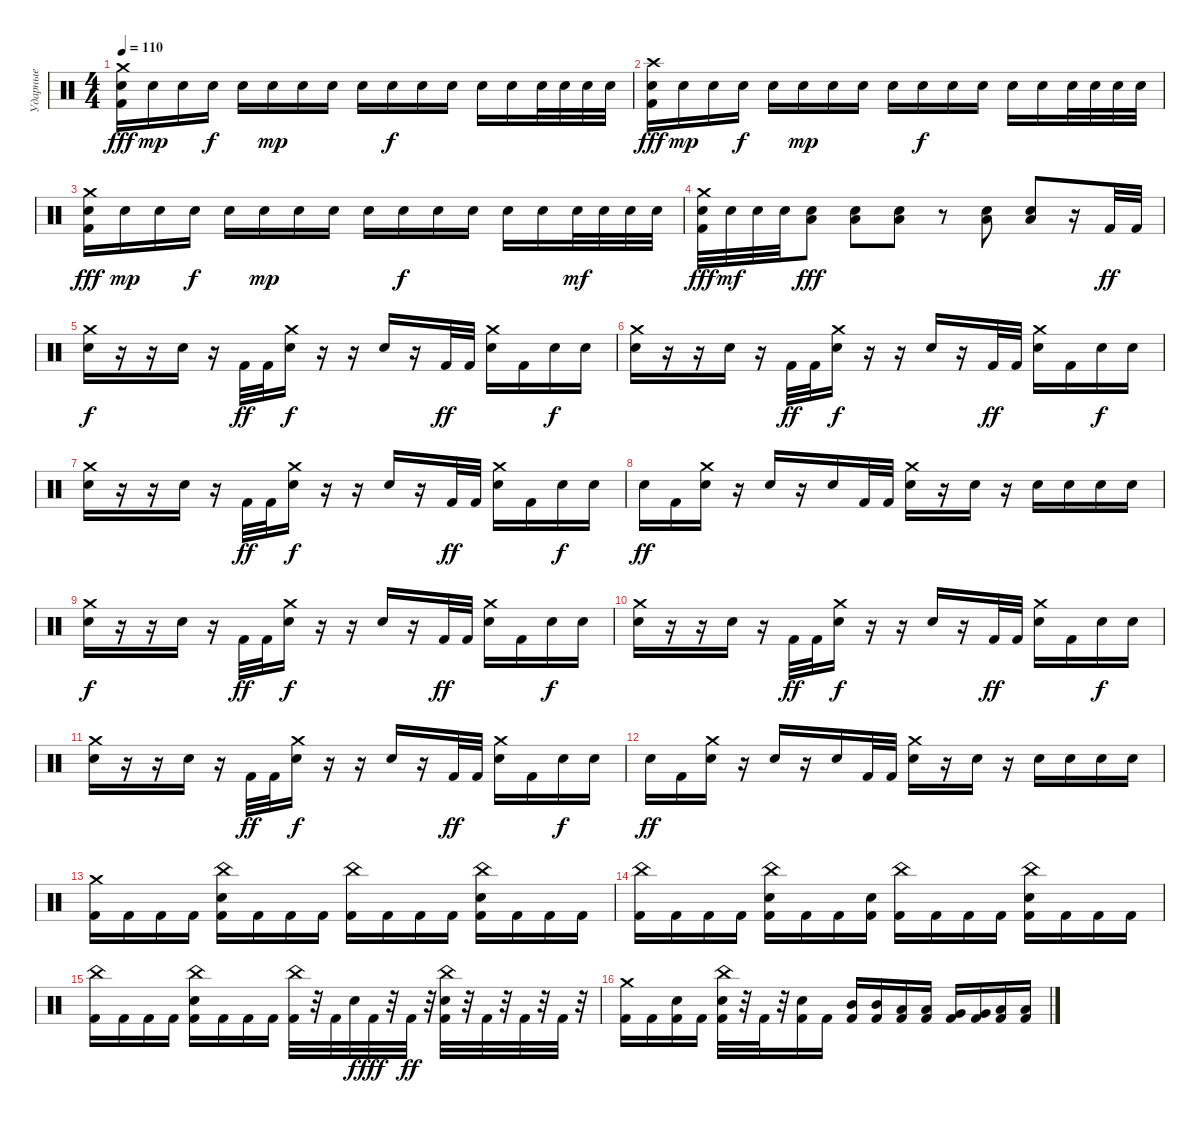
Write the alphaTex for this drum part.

\track ("Ударные" "Ударные") {instrument percussion}
\staff {score}
\articulation defaults
\ts (4 4)
\tempo 110
\clef neutral
\ks c
("Crash medium (hit)" "Electric Snare (hit)" "Kick (hit) 2").16{dy fff} "Electric Snare (hit)".16{dy mp} "Electric Snare (hit)".16 "Electric Snare (hit)".16{dy f} "Electric Snare (hit)".16 "Electric Snare (hit)".16{dy mp} "Electric Snare (hit)".16 "Electric Snare (hit)".16 "Electric Snare (hit)".16 "Electric Snare (hit)".16{dy f} "Electric Snare (hit)".16 "Electric Snare (hit)".16 "Electric Snare (hit)".16 "Electric Snare (hit)".16 "Electric Snare (hit)".32 "Electric Snare (hit)".32 "Electric Snare (hit)".32 "Electric Snare (hit)".32 |
("Crash high (hit)" "Electric Snare (hit)" "Kick (hit) 2").16{dy fff} "Electric Snare (hit)".16{dy mp} "Electric Snare (hit)".16 "Electric Snare (hit)".16{dy f} "Electric Snare (hit)".16 "Electric Snare (hit)".16{dy mp} "Electric Snare (hit)".16 "Electric Snare (hit)".16 "Electric Snare (hit)".16 "Electric Snare (hit)".16{dy f} "Electric Snare (hit)".16 "Electric Snare (hit)".16 "Electric Snare (hit)".16 "Electric Snare (hit)".16 "Electric Snare (hit)".32 "Electric Snare (hit)".32 "Electric Snare (hit)".32 "Electric Snare (hit)".32 |
("Crash medium (hit)" "Electric Snare (hit)" "Kick (hit) 2").16{dy fff} "Electric Snare (hit)".16{dy mp} "Electric Snare (hit)".16 "Electric Snare (hit)".16{dy f} "Electric Snare (hit)".16 "Electric Snare (hit)".16{dy mp} "Electric Snare (hit)".16 "Electric Snare (hit)".16 "Electric Snare (hit)".16 "Electric Snare (hit)".16{dy f} "Electric Snare (hit)".16 "Electric Snare (hit)".16 "Electric Snare (hit)".16 "Electric Snare (hit)".16 "Electric Snare (hit)".32{dy mf} "Electric Snare (hit)".32 "Electric Snare (hit)".32 "Electric Snare (hit)".32 |
("Crash medium (hit)" "Electric Snare (hit)" "Kick (hit) 2").32{dy fff} "Electric Snare (hit)".32{dy mf} "Electric Snare (hit)".32 "Electric Snare (hit)".32 ("Electric Snare (hit)" "Low Floor Tom (hit)").8{dy fff} ("Electric Snare (hit)" "Low Floor Tom (hit)").8 ("Electric Snare (hit)" "Low Floor Tom (hit)").8 r.8 ("Electric Snare (hit)" "Low Floor Tom (hit)").8 ("Electric Snare (hit)" "Low Floor Tom (hit)").8 r.16 "Kick (hit) 2".32{dy ff} "Kick (hit) 2".32 |
("Crash medium (hit)" "Electric Snare (hit)").16{dy f} r.16 r.16 "Electric Snare (hit)".16 r.16 "Kick (hit) 2".32{dy ff} "Kick (hit) 2".32 ("Crash medium (hit)" "Electric Snare (hit)").16{dy f} r.16 r.16 "Electric Snare (hit)".16 r.16 "Kick (hit) 2".32{dy ff} "Kick (hit) 2".32 ("Crash medium (hit)" "Electric Snare (hit)").16 "Kick (hit) 2".16 "Electric Snare (hit)".16{dy f} "Electric Snare (hit)".16 |
("Crash medium (hit)" "Electric Snare (hit)").16 r.16 r.16 "Electric Snare (hit)".16 r.16 "Kick (hit) 2".32{dy ff} "Kick (hit) 2".32 ("Crash medium (hit)" "Electric Snare (hit)").16{dy f} r.16 r.16 "Electric Snare (hit)".16 r.16 "Kick (hit) 2".32{dy ff} "Kick (hit) 2".32 ("Crash medium (hit)" "Electric Snare (hit)").16 "Kick (hit) 2".16 "Electric Snare (hit)".16{dy f} "Electric Snare (hit)".16 |
("Crash medium (hit)" "Electric Snare (hit)").16 r.16 r.16 "Electric Snare (hit)".16 r.16 "Kick (hit) 2".32{dy ff} "Kick (hit) 2".32 ("Crash medium (hit)" "Electric Snare (hit)").16{dy f} r.16 r.16 "Electric Snare (hit)".16 r.16 "Kick (hit) 2".32{dy ff} "Kick (hit) 2".32 ("Crash medium (hit)" "Electric Snare (hit)").16 "Kick (hit) 2".16 "Electric Snare (hit)".16{dy f} "Electric Snare (hit)".16 |
"Electric Snare (hit)".16{dy ff} "Kick (hit) 2".16 ("Crash medium (hit)" "Electric Snare (hit)").16 r.16 "Electric Snare (hit)".16 r.16 "Electric Snare (hit)".16 "Kick (hit) 2".32 "Kick (hit) 2".32 ("Crash medium (hit)" "Electric Snare (hit)").16 r.16 "Electric Snare (hit)".16 r.16 "Electric Snare (hit)".16 "Electric Snare (hit)".16 "Electric Snare (hit)".16 "Electric Snare (hit)".16 |
("Crash medium (hit)" "Electric Snare (hit)").16{dy f} r.16 r.16 "Electric Snare (hit)".16 r.16 "Kick (hit) 2".32{dy ff} "Kick (hit) 2".32 ("Crash medium (hit)" "Electric Snare (hit)").16{dy f} r.16 r.16 "Electric Snare (hit)".16 r.16 "Kick (hit) 2".32{dy ff} "Kick (hit) 2".32 ("Crash medium (hit)" "Electric Snare (hit)").16 "Kick (hit) 2".16 "Electric Snare (hit)".16{dy f} "Electric Snare (hit)".16 |
("Crash medium (hit)" "Electric Snare (hit)").16 r.16 r.16 "Electric Snare (hit)".16 r.16 "Kick (hit) 2".32{dy ff} "Kick (hit) 2".32 ("Crash medium (hit)" "Electric Snare (hit)").16{dy f} r.16 r.16 "Electric Snare (hit)".16 r.16 "Kick (hit) 2".32{dy ff} "Kick (hit) 2".32 ("Crash medium (hit)" "Electric Snare (hit)").16 "Kick (hit) 2".16 "Electric Snare (hit)".16{dy f} "Electric Snare (hit)".16 |
("Crash medium (hit)" "Electric Snare (hit)").16 r.16 r.16 "Electric Snare (hit)".16 r.16 "Kick (hit) 2".32{dy ff} "Kick (hit) 2".32 ("Crash medium (hit)" "Electric Snare (hit)").16{dy f} r.16 r.16 "Electric Snare (hit)".16 r.16 "Kick (hit) 2".32{dy ff} "Kick (hit) 2".32 ("Crash medium (hit)" "Electric Snare (hit)").16 "Kick (hit) 2".16 "Electric Snare (hit)".16{dy f} "Electric Snare (hit)".16 |
"Electric Snare (hit)".16{dy ff} "Kick (hit) 2".16 ("Crash medium (hit)" "Electric Snare (hit)").16 r.16 "Electric Snare (hit)".16 r.16 "Electric Snare (hit)".16 "Kick (hit) 2".32 "Kick (hit) 2".32 ("Crash medium (hit)" "Electric Snare (hit)").16 r.16 "Electric Snare (hit)".16 r.16 "Electric Snare (hit)".16 "Electric Snare (hit)".16 "Electric Snare (hit)".16 "Electric Snare (hit)".16 |
("Crash medium (hit)" "Kick (hit) 2").16 "Kick (hit) 2".16 "Kick (hit) 2".16 "Kick (hit) 2".16 ("China (hit)" "Electric Snare (hit)" "Kick (hit) 2").16 "Kick (hit) 2".16 "Kick (hit) 2".16 "Kick (hit) 2".16 ("China (hit)" "Kick (hit) 2").16 "Kick (hit) 2".16 "Kick (hit) 2".16 "Kick (hit) 2".16 ("China (hit)" "Electric Snare (hit)" "Kick (hit) 2").16 "Kick (hit) 2".16 "Kick (hit) 2".16 "Kick (hit) 2".16 |
("China (hit)" "Kick (hit) 2").16 "Kick (hit) 2".16 "Kick (hit) 2".16 "Kick (hit) 2".16 ("China (hit)" "Electric Snare (hit)" "Kick (hit) 2").16 "Kick (hit) 2".16 "Kick (hit) 2".16 ("Electric Snare (hit)" "Kick (hit) 2").16 ("China (hit)" "Kick (hit) 2").16 "Kick (hit) 2".16 "Kick (hit) 2".16 "Kick (hit) 2".16 ("China (hit)" "Electric Snare (hit)" "Kick (hit) 2").16 "Kick (hit) 2".16 "Kick (hit) 2".16 "Kick (hit) 2".16 |
("China (hit)" "Kick (hit) 2").16 "Kick (hit) 2".16 "Kick (hit) 2".16 "Kick (hit) 2".16 ("China (hit)" "Electric Snare (hit)" "Kick (hit) 2").16 "Kick (hit) 2".16 "Kick (hit) 2".16 "Kick (hit) 2".16 ("China (hit)" "Kick (hit) 2").32 r.32 "Kick (hit) 2".32 "Electric Snare (hit)".32{dy f} "Kick (hit) 2".32{dy fff} r.32 "Kick (hit) 2".32{dy ff} r.32 ("China (hit)" "Electric Snare (hit)" "Kick (hit) 2").32 r.32 "Kick (hit) 2".32 r.32 "Kick (hit) 2".32 r.32 "Kick (hit) 2".32 r.32 |
("Crash medium (hit)" "Kick (hit) 2").16 "Kick (hit) 2".16 ("Electric Snare (hit)" "Kick (hit) 2").16 "Kick (hit) 2".16 ("China (hit)" "Electric Snare (hit)" "Kick (hit) 2").32 r.32 "Kick (hit) 2".32 r.32 ("Electric Snare (hit)" "Kick (hit) 2").16 "Kick (hit) 2".16 ("Mid Tom (hit)" "Kick (hit) 2").16 ("Mid Tom (hit)" "Kick (hit) 2").16 ("Low Tom (hit)" "Kick (hit) 2").16 ("Low Tom (hit)" "Kick (hit) 2").16 ("Very Low Tom (hit)" "Kick (hit) 2").16 ("Very Low Tom (hit)" "Kick (hit) 2").16 ("Low Floor Tom (hit)" "Kick (hit) 2").16 ("Low Floor Tom (hit)" "Kick (hit) 2").16
